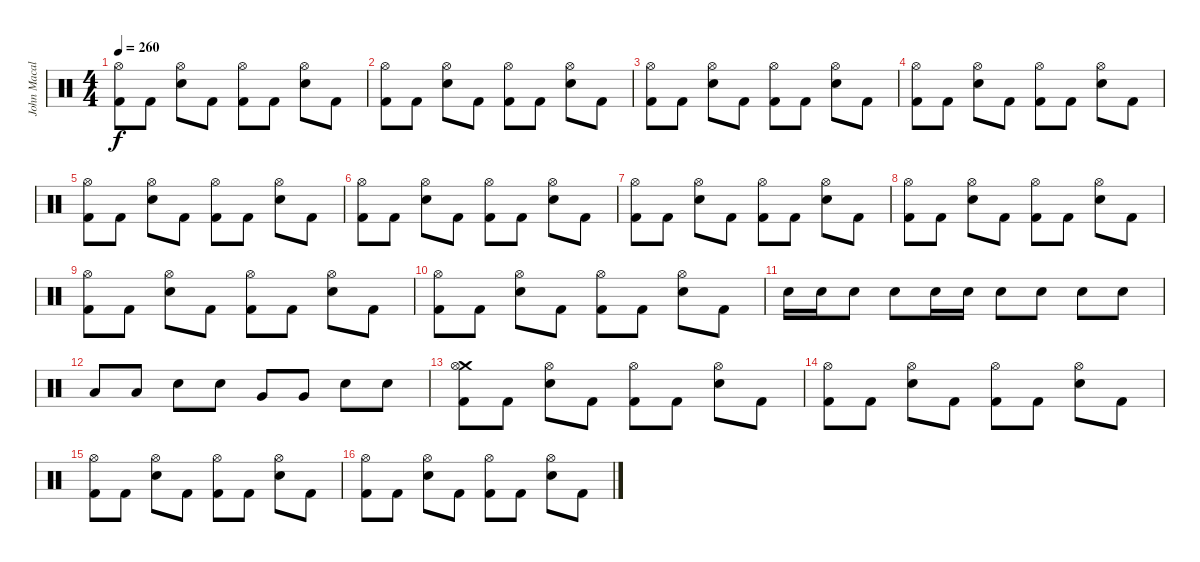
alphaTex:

\track ("John Macaluso" "John Macal") {instrument percussion}
\staff {score}
\articulation defaults
\ts (4 4)
\tempo 260
\clef neutral
\ks c
("Hi-Hat (open)" "Kick (hit) 2").8{dy f} "Kick (hit) 2".8 ("Hi-Hat (open)" "Snare (hit) 2").8 "Kick (hit) 2".8 ("Hi-Hat (open)" "Kick (hit) 2").8 "Kick (hit) 2".8 ("Hi-Hat (open)" "Snare (hit) 2").8 "Kick (hit) 2".8 |
("Hi-Hat (open)" "Kick (hit) 2").8 "Kick (hit) 2".8 ("Hi-Hat (open)" "Snare (hit) 2").8 "Kick (hit) 2".8 ("Hi-Hat (open)" "Kick (hit) 2").8 "Kick (hit) 2".8 ("Hi-Hat (open)" "Snare (hit) 2").8 "Kick (hit) 2".8 |
("Hi-Hat (open)" "Kick (hit) 2").8 "Kick (hit) 2".8 ("Hi-Hat (open)" "Snare (hit) 2").8 "Kick (hit) 2".8 ("Hi-Hat (open)" "Kick (hit) 2").8 "Kick (hit) 2".8 ("Hi-Hat (open)" "Snare (hit) 2").8 "Kick (hit) 2".8 |
("Hi-Hat (open)" "Kick (hit) 2").8 "Kick (hit) 2".8 ("Hi-Hat (open)" "Snare (hit) 2").8 "Kick (hit) 2".8 ("Hi-Hat (open)" "Kick (hit) 2").8 "Kick (hit) 2".8 ("Hi-Hat (open)" "Snare (hit) 2").8 "Kick (hit) 2".8 |
("Hi-Hat (open)" "Kick (hit) 2").8 "Kick (hit) 2".8 ("Hi-Hat (open)" "Snare (hit) 2").8 "Kick (hit) 2".8 ("Hi-Hat (open)" "Kick (hit) 2").8 "Kick (hit) 2".8 ("Hi-Hat (open)" "Snare (hit) 2").8 "Kick (hit) 2".8 |
("Hi-Hat (open)" "Kick (hit) 2").8 "Kick (hit) 2".8 ("Hi-Hat (open)" "Snare (hit) 2").8 "Kick (hit) 2".8 ("Hi-Hat (open)" "Kick (hit) 2").8 "Kick (hit) 2".8 ("Hi-Hat (open)" "Snare (hit) 2").8 "Kick (hit) 2".8 |
("Hi-Hat (open)" "Kick (hit) 2").8 "Kick (hit) 2".8 ("Hi-Hat (open)" "Snare (hit) 2").8 "Kick (hit) 2".8 ("Hi-Hat (open)" "Kick (hit) 2").8 "Kick (hit) 2".8 ("Hi-Hat (open)" "Snare (hit) 2").8 "Kick (hit) 2".8 |
("Hi-Hat (open)" "Kick (hit) 2").8 "Kick (hit) 2".8 ("Hi-Hat (open)" "Snare (hit) 2").8 "Kick (hit) 2".8 ("Hi-Hat (open)" "Kick (hit) 2").8 "Kick (hit) 2".8 ("Hi-Hat (open)" "Snare (hit) 2").8 "Kick (hit) 2".8 |
("Hi-Hat (open)" "Kick (hit) 2").8 "Kick (hit) 2".8 ("Hi-Hat (open)" "Snare (hit) 2").8 "Kick (hit) 2".8 ("Hi-Hat (open)" "Kick (hit) 2").8 "Kick (hit) 2".8 ("Hi-Hat (open)" "Snare (hit) 2").8 "Kick (hit) 2".8 |
("Hi-Hat (open)" "Kick (hit) 2").8 "Kick (hit) 2".8 ("Hi-Hat (open)" "Snare (hit) 2").8 "Kick (hit) 2".8 ("Hi-Hat (open)" "Kick (hit) 2").8 "Kick (hit) 2".8 ("Hi-Hat (open)" "Snare (hit) 2").8 "Kick (hit) 2".8 |
"Snare (hit) 2".16 "Snare (hit) 2".16 "Snare (hit) 2".8 "Snare (hit) 2".8 "Snare (hit) 2".16 "Snare (hit) 2".16 "Snare (hit) 2".8 "Snare (hit) 2".8 "Snare (hit) 2".8 "Snare (hit) 2".8 |
"Low Tom (hit)".8 "Low Tom (hit)".8 "Snare (hit) 2".8 "Snare (hit) 2".8 "Very Low Tom (hit)".8 "Very Low Tom (hit)".8 "Snare (hit) 2".8 "Snare (hit) 2".8 |
("Crash medium (hit)" "Hi-Hat (open)" "Kick (hit) 2").8 "Kick (hit) 2".8 ("Hi-Hat (open)" "Snare (hit) 2").8 "Kick (hit) 2".8 ("Hi-Hat (open)" "Kick (hit) 2").8 "Kick (hit) 2".8 ("Hi-Hat (open)" "Snare (hit) 2").8 "Kick (hit) 2".8 |
("Hi-Hat (open)" "Kick (hit) 2").8 "Kick (hit) 2".8 ("Hi-Hat (open)" "Snare (hit) 2").8 "Kick (hit) 2".8 ("Hi-Hat (open)" "Kick (hit) 2").8 "Kick (hit) 2".8 ("Hi-Hat (open)" "Snare (hit) 2").8 "Kick (hit) 2".8 |
("Hi-Hat (open)" "Kick (hit) 2").8 "Kick (hit) 2".8 ("Hi-Hat (open)" "Snare (hit) 2").8 "Kick (hit) 2".8 ("Hi-Hat (open)" "Kick (hit) 2").8 "Kick (hit) 2".8 ("Hi-Hat (open)" "Snare (hit) 2").8 "Kick (hit) 2".8 |
("Hi-Hat (open)" "Kick (hit) 2").8 "Kick (hit) 2".8 ("Hi-Hat (open)" "Snare (hit) 2").8 "Kick (hit) 2".8 ("Hi-Hat (open)" "Kick (hit) 2").8 "Kick (hit) 2".8 ("Hi-Hat (open)" "Snare (hit) 2").8 "Kick (hit) 2".8
